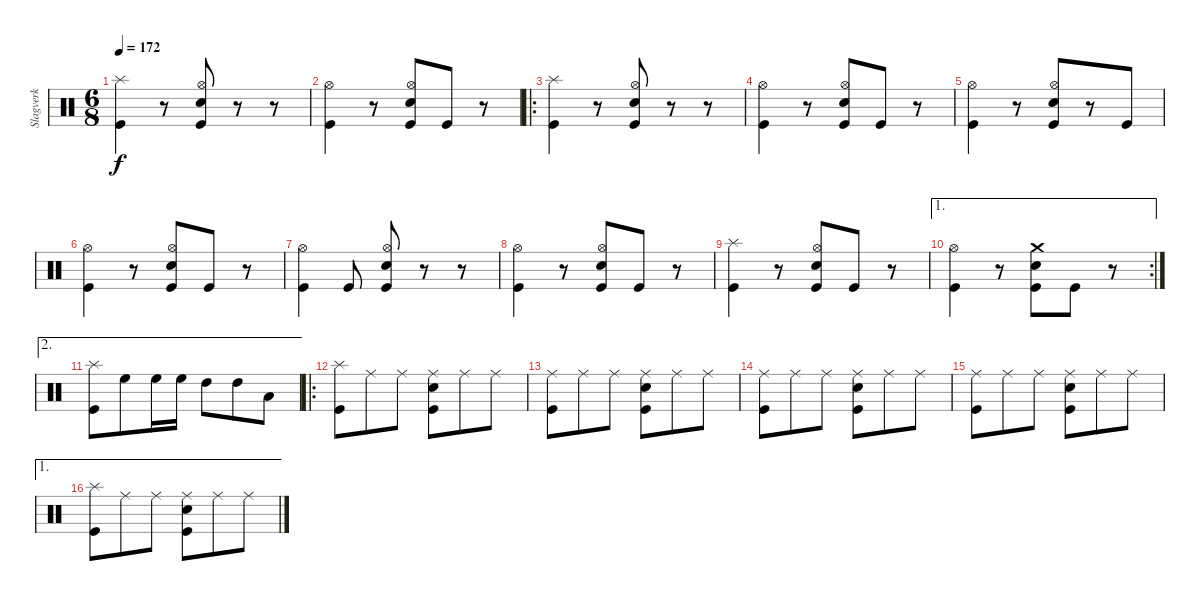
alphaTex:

\track ("Slagverk" "Slagverk") {instrument percussion}
\staff {score}
\articulation defaults
\ts (6 8)
\tempo 172
\clef neutral
\ks c
("Splash (hit)" "Kick (hit)").4{dy f} r.8 ("Hi-Hat (open)" "Snare (hit) 2" "Kick (hit)").8 r.8 r.8 |
("Hi-Hat (open)" "Kick (hit)").4 r.8 ("Hi-Hat (open)" "Snare (hit) 2" "Kick (hit)").8 "Kick (hit)".8 r.8 |
\ro
("Splash (hit)" "Kick (hit)").4 r.8 ("Hi-Hat (open)" "Snare (hit) 2" "Kick (hit)").8 r.8 r.8 |
("Hi-Hat (open)" "Kick (hit)").4 r.8 ("Hi-Hat (open)" "Snare (hit) 2" "Kick (hit)").8 "Kick (hit)".8 r.8 |
("Hi-Hat (open)" "Kick (hit)").4 r.8 ("Hi-Hat (open)" "Snare (hit) 2" "Kick (hit)").8 r.8 "Kick (hit)".8 |
("Hi-Hat (open)" "Kick (hit)").4 r.8 ("Hi-Hat (open)" "Snare (hit) 2" "Kick (hit)").8 "Kick (hit)".8 r.8 |
("Hi-Hat (open)" "Kick (hit)").4 "Kick (hit)".8 ("Hi-Hat (open)" "Snare (hit) 2" "Kick (hit)").8 r.8 r.8 |
("Hi-Hat (open)" "Kick (hit)").4 r.8 ("Hi-Hat (open)" "Snare (hit) 2" "Kick (hit)").8 "Kick (hit)".8 r.8 |
("Splash (hit)" "Kick (hit)").4 r.8 ("Hi-Hat (open)" "Snare (hit) 2" "Kick (hit)").8 "Kick (hit)".8 r.8 |
\ae 1
\rc 2
("Hi-Hat (open)" "Kick (hit)").4 r.8 ("Crash medium (hit)" "Snare (hit) 2" "Kick (hit)").8 "Kick (hit)".8 r.8 |
\ae 2
("Splash (hit)" "Kick (hit)").8 "High Floor Tom (hit)".8 "High Floor Tom (hit)".16 "High Floor Tom (hit)".16 "High Tom (hit)".8 "High Tom (hit)".8 "Low Tom (hit)".8 |
\ro
("Splash (hit)" "Kick (hit)").8 "Ride (middle)".8 "Ride (middle)".8 ("Ride (middle)" "Snare (hit) 2" "Kick (hit)").8 "Ride (middle)".8 "Ride (middle)".8 |
("Ride (middle)" "Kick (hit)").8 "Ride (middle)".8 "Ride (middle)".8 ("Ride (middle)" "Snare (hit) 2" "Kick (hit)").8 "Ride (middle)".8 "Ride (middle)".8 |
("Ride (middle)" "Kick (hit)").8 "Ride (middle)".8 "Ride (middle)".8 ("Ride (middle)" "Snare (hit) 2" "Kick (hit)").8 "Ride (middle)".8 "Ride (middle)".8 |
("Ride (middle)" "Kick (hit)").8 "Ride (middle)".8 "Ride (middle)".8 ("Ride (middle)" "Snare (hit) 2" "Kick (hit)").8 "Ride (middle)".8 "Ride (middle)".8 |
\ae 1
("Splash (hit)" "Kick (hit)").8 "Ride (middle)".8 "Ride (middle)".8 ("Ride (middle)" "Snare (hit) 2" "Kick (hit)").8 "Ride (middle)".8 "Ride (middle)".8
